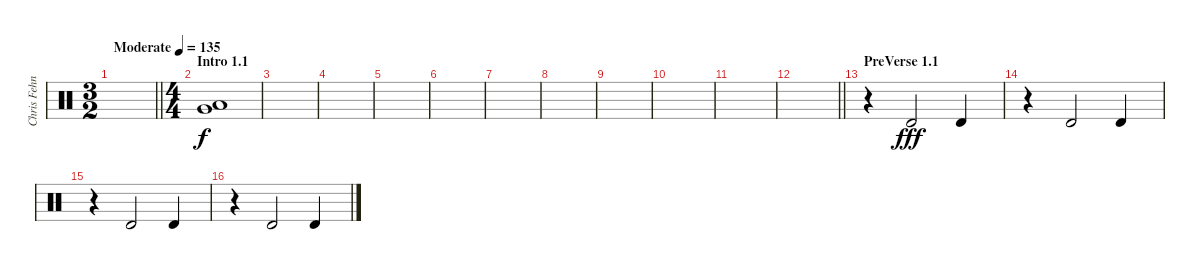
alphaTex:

\track ("Chris Fehn" "Chris Fehn") {instrument percussion}
\staff {score}
\articulation defaults
\ts (3 2)
\tempo (135 "Moderate")
\clef neutral
\barLineRight lightlight
\ks c
|
\ts (4 4)
\section ("" "Intro 1.1")
("Very Low Tom (hit)" "Low Floor Tom (hit)").1 |
|
|
|
|
|
|
|
|
|
\barLineRight lightlight
|
\section ("" "PreVerse 1.1")
r.4 "Timbale high (hit)".2{dy fff} "Timbale high (hit)".4 |
r.4 "Timbale high (hit)".2 "Timbale high (hit)".4 |
r.4 "Timbale high (hit)".2 "Timbale high (hit)".4 |
r.4 "Timbale high (hit)".2 "Timbale high (hit)".4
